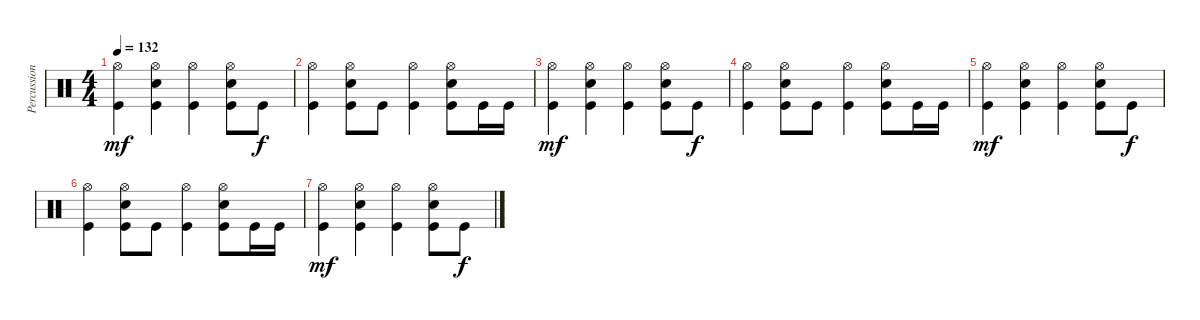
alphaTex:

\track ("Percussion" "Percussion") {instrument percussion}
\staff {score}
\articulation defaults
\ts (4 4)
\tempo 132
\clef neutral
\ks c
("Hi-Hat (open)" "Kick (hit)").4{dy mf} ("Hi-Hat (open)" "Electric Snare (hit)" "Kick (hit)").4 ("Hi-Hat (open)" "Kick (hit)").4 ("Hi-Hat (open)" "Electric Snare (hit)" "Kick (hit)").8 "Kick (hit)".8{dy f} |
("Hi-Hat (open)" "Kick (hit)").4 ("Hi-Hat (open)" "Electric Snare (hit)" "Kick (hit)").8 "Kick (hit)".8 ("Hi-Hat (open)" "Kick (hit)").4 ("Hi-Hat (open)" "Electric Snare (hit)" "Kick (hit)").8 "Kick (hit)".16 "Kick (hit)".16 |
("Hi-Hat (open)" "Kick (hit)").4{dy mf} ("Hi-Hat (open)" "Electric Snare (hit)" "Kick (hit)").4 ("Hi-Hat (open)" "Kick (hit)").4 ("Hi-Hat (open)" "Electric Snare (hit)" "Kick (hit)").8 "Kick (hit)".8{dy f} |
("Hi-Hat (open)" "Kick (hit)").4 ("Hi-Hat (open)" "Electric Snare (hit)" "Kick (hit)").8 "Kick (hit)".8 ("Hi-Hat (open)" "Kick (hit)").4 ("Hi-Hat (open)" "Electric Snare (hit)" "Kick (hit)").8 "Kick (hit)".16 "Kick (hit)".16 |
("Hi-Hat (open)" "Kick (hit)").4{dy mf} ("Hi-Hat (open)" "Electric Snare (hit)" "Kick (hit)").4 ("Hi-Hat (open)" "Kick (hit)").4 ("Hi-Hat (open)" "Electric Snare (hit)" "Kick (hit)").8 "Kick (hit)".8{dy f} |
("Hi-Hat (open)" "Kick (hit)").4 ("Hi-Hat (open)" "Electric Snare (hit)" "Kick (hit)").8 "Kick (hit)".8 ("Hi-Hat (open)" "Kick (hit)").4 ("Hi-Hat (open)" "Electric Snare (hit)" "Kick (hit)").8 "Kick (hit)".16 "Kick (hit)".16 |
("Hi-Hat (open)" "Kick (hit)").4{dy mf} ("Hi-Hat (open)" "Electric Snare (hit)" "Kick (hit)").4 ("Hi-Hat (open)" "Kick (hit)").4 ("Hi-Hat (open)" "Electric Snare (hit)" "Kick (hit)").8 "Kick (hit)".8{dy f}
